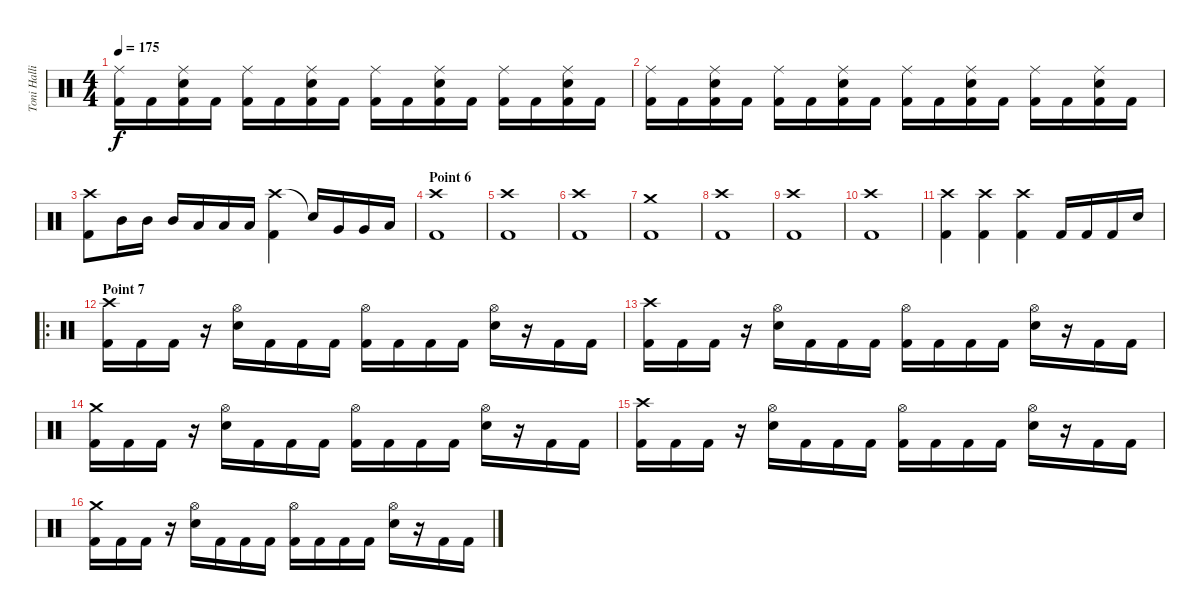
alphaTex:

\track ("Toni Hallio" "Toni Halli") {instrument percussion}
\staff {score}
\articulation defaults
\ts (4 4)
\tempo 175
\clef neutral
\ks c
("Ride (middle)" "Kick (hit) 2").16{dy f} "Kick (hit) 2".16 ("Ride (middle)" "Snare (hit) 2" "Kick (hit) 2").16 "Kick (hit) 2".16 ("Ride (middle)" "Kick (hit) 2").16 "Kick (hit) 2".16 ("Ride (middle)" "Snare (hit) 2" "Kick (hit) 2").16 "Kick (hit) 2".16 ("Ride (middle)" "Kick (hit) 2").16 "Kick (hit) 2".16 ("Ride (middle)" "Snare (hit) 2" "Kick (hit) 2").16 "Kick (hit) 2".16 ("Ride (middle)" "Kick (hit) 2").16 "Kick (hit) 2".16 ("Ride (middle)" "Snare (hit) 2" "Kick (hit) 2").16 "Kick (hit) 2".16 |
("Ride (middle)" "Kick (hit) 2").16 "Kick (hit) 2".16 ("Ride (middle)" "Snare (hit) 2" "Kick (hit) 2").16 "Kick (hit) 2".16 ("Ride (middle)" "Kick (hit) 2").16 "Kick (hit) 2".16 ("Ride (middle)" "Snare (hit) 2" "Kick (hit) 2").16 "Kick (hit) 2".16 ("Ride (middle)" "Kick (hit) 2").16 "Kick (hit) 2".16 ("Ride (middle)" "Snare (hit) 2" "Kick (hit) 2").16 "Kick (hit) 2".16 ("Ride (middle)" "Kick (hit) 2").16 "Kick (hit) 2".16 ("Ride (middle)" "Snare (hit) 2" "Kick (hit) 2").16 "Kick (hit) 2".16 |
("Crash high (hit)" "Kick (hit) 2").8 "Mid Tom (hit)".16 "Mid Tom (hit)".16 "Mid Tom (hit)".16 "Low Tom (hit)".16 "Low Tom (hit)".16 "Low Tom (hit)".16 ("Crash high (hit)" "Kick (hit) 2").4 "Snare (hit)"{t}.16 "Very Low Tom (hit)".16 "Very Low Tom (hit)".16 "Low Floor Tom (hit)".16 |
\section ("" "Point 6")
("Crash high (hit)" "Kick (hit) 2").1 |
("Crash high (hit)" "Kick (hit) 2").1 |
("Crash high (hit)" "Kick (hit) 2").1 |
("Crash medium (hit)" "Kick (hit) 2").1 |
("Crash high (hit)" "Kick (hit) 2").1 |
("Crash high (hit)" "Kick (hit) 2").1 |
("Crash high (hit)" "Kick (hit) 2").1 |
("Crash high (hit)" "Kick (hit) 2").4 ("Crash high (hit)" "Kick (hit) 2").4 ("Crash high (hit)" "Kick (hit) 2").4 "Kick (hit) 2".16 "Kick (hit) 2".16 "Kick (hit) 2".16 "Snare (hit) 2".16 |
\ro
\section ("" "Point 7")
("Crash high (hit)" "Kick (hit) 2").16 "Kick (hit) 2".16 "Kick (hit) 2".16 r.16 ("Hi-Hat (open)" "Snare (hit) 2").16 "Kick (hit) 2".16 "Kick (hit) 2".16 "Kick (hit) 2".16 ("Hi-Hat (open)" "Kick (hit) 2").16 "Kick (hit) 2".16 "Kick (hit) 2".16 "Kick (hit) 2".16 ("Hi-Hat (open)" "Snare (hit) 2").16 r.16 "Kick (hit) 2".16 "Kick (hit) 2".16 |
("Crash high (hit)" "Kick (hit) 2").16 "Kick (hit) 2".16 "Kick (hit) 2".16 r.16 ("Hi-Hat (open)" "Snare (hit) 2").16 "Kick (hit) 2".16 "Kick (hit) 2".16 "Kick (hit) 2".16 ("Hi-Hat (open)" "Kick (hit) 2").16 "Kick (hit) 2".16 "Kick (hit) 2".16 "Kick (hit) 2".16 ("Hi-Hat (open)" "Snare (hit) 2").16 r.16 "Kick (hit) 2".16 "Kick (hit) 2".16 |
("Crash medium (hit)" "Kick (hit) 2").16 "Kick (hit) 2".16 "Kick (hit) 2".16 r.16 ("Hi-Hat (open)" "Snare (hit) 2").16 "Kick (hit) 2".16 "Kick (hit) 2".16 "Kick (hit) 2".16 ("Hi-Hat (open)" "Kick (hit) 2").16 "Kick (hit) 2".16 "Kick (hit) 2".16 "Kick (hit) 2".16 ("Hi-Hat (open)" "Snare (hit) 2").16 r.16 "Kick (hit) 2".16 "Kick (hit) 2".16 |
("Crash high (hit)" "Kick (hit) 2").16 "Kick (hit) 2".16 "Kick (hit) 2".16 r.16 ("Hi-Hat (open)" "Snare (hit) 2").16 "Kick (hit) 2".16 "Kick (hit) 2".16 "Kick (hit) 2".16 ("Hi-Hat (open)" "Kick (hit) 2").16 "Kick (hit) 2".16 "Kick (hit) 2".16 "Kick (hit) 2".16 ("Hi-Hat (open)" "Snare (hit) 2").16 r.16 "Kick (hit) 2".16 "Kick (hit) 2".16 |
("Crash medium (hit)" "Kick (hit) 2").16 "Kick (hit) 2".16 "Kick (hit) 2".16 r.16 ("Hi-Hat (open)" "Snare (hit) 2").16 "Kick (hit) 2".16 "Kick (hit) 2".16 "Kick (hit) 2".16 ("Hi-Hat (open)" "Kick (hit) 2").16 "Kick (hit) 2".16 "Kick (hit) 2".16 "Kick (hit) 2".16 ("Hi-Hat (open)" "Snare (hit) 2").16 r.16 "Kick (hit) 2".16 "Kick (hit) 2".16
